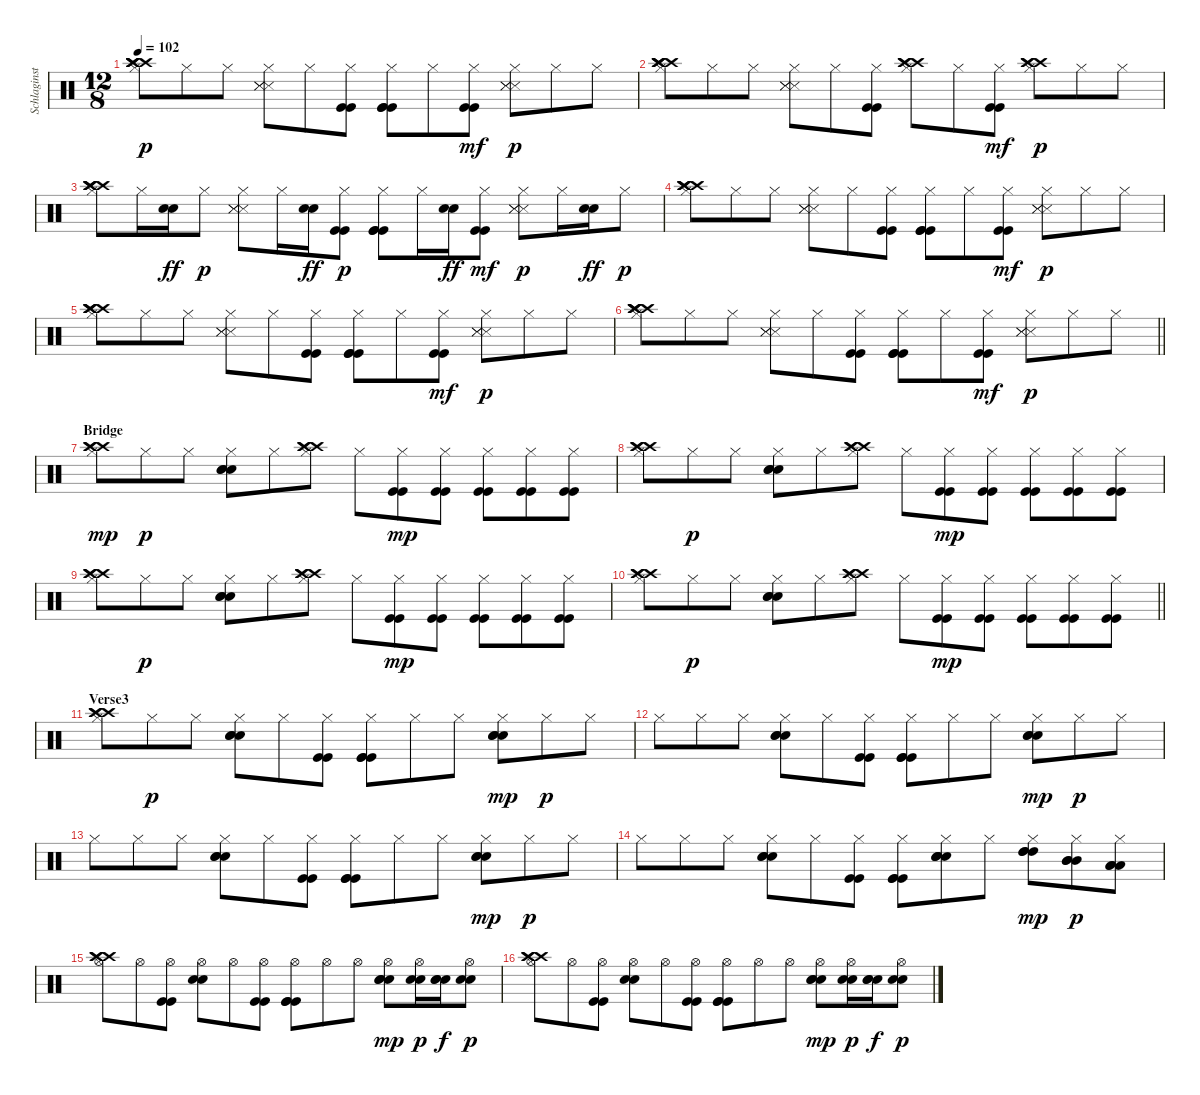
\track ("Schlaginstrumente - Auswahl" "Schlaginst") {instrument percussion}
\staff {score}
\articulation defaults
\ts (12 8)
\tempo 102
\clef neutral
\ks c
("Hi-Hat (closed)" "Crash high (hit)" "Crash high (hit)" "Crash high (hit)" "Crash high (hit)").8{dy p} "Hi-Hat (closed)".8 "Hi-Hat (closed)".8 ("Hi-Hat (closed)" "Snare (side stick) 3" "Snare (side stick) 3" "Snare (side stick) 3").8 "Hi-Hat (closed)".8 ("Hi-Hat (closed)" "Kick (hit)" "Kick (hit)").8 ("Hi-Hat (closed)" "Kick (hit)" "Kick (hit)" "Kick (hit)").8 "Hi-Hat (closed)".8 ("Hi-Hat (closed)" "Kick (hit)" "Kick (hit)").8{dy mf} ("Hi-Hat (closed)" "Snare (side stick) 3" "Snare (side stick) 3" "Snare (side stick) 3").8{dy p} "Hi-Hat (closed)".8 "Hi-Hat (closed)".8 |
("Hi-Hat (closed)" "Crash high (hit)" "Crash high (hit)" "Crash high (hit)" "Crash high (hit)").8 "Hi-Hat (closed)".8 "Hi-Hat (closed)".8 ("Hi-Hat (closed)" "Snare (side stick) 3" "Snare (side stick) 3" "Snare (side stick) 3").8 "Hi-Hat (closed)".8 ("Hi-Hat (closed)" "Kick (hit)" "Kick (hit)").8 ("Hi-Hat (closed)" "Crash high (hit)" "Crash high (hit)" "Crash high (hit)").8 "Hi-Hat (closed)".8 ("Hi-Hat (closed)" "Kick (hit)" "Kick (hit)").8{dy mf} ("Hi-Hat (closed)" "Crash high (hit)" "Crash high (hit)" "Crash high (hit)").8{dy p} "Hi-Hat (closed)".8 "Hi-Hat (closed)".8 |
("Hi-Hat (closed)" "Crash high (hit)" "Crash high (hit)" "Crash high (hit)" "Crash high (hit)").8 "Hi-Hat (closed)".16 ("Snare (hit) 2" "Snare (hit) 2").16{dy ff} "Hi-Hat (closed)".8{dy p} ("Hi-Hat (closed)" "Snare (side stick) 3" "Snare (side stick) 3" "Snare (side stick) 3").8 "Hi-Hat (closed)".16 ("Snare (hit) 2" "Snare (hit) 2").16{dy ff} ("Hi-Hat (closed)" "Kick (hit)" "Kick (hit)").8{dy p} ("Hi-Hat (closed)" "Kick (hit)" "Kick (hit)" "Kick (hit)").8 "Hi-Hat (closed)".16 ("Snare (hit) 2" "Snare (hit) 2").16{dy ff} ("Hi-Hat (closed)" "Kick (hit)" "Kick (hit)").8{dy mf} ("Hi-Hat (closed)" "Snare (side stick) 3" "Snare (side stick) 3" "Snare (side stick) 3").8{dy p} "Hi-Hat (closed)".16 ("Snare (hit) 2" "Snare (hit) 2").16{dy ff} "Hi-Hat (closed)".8{dy p} |
("Hi-Hat (closed)" "Crash high (hit)" "Crash high (hit)" "Crash high (hit)" "Crash high (hit)").8 "Hi-Hat (closed)".8 "Hi-Hat (closed)".8 ("Hi-Hat (closed)" "Snare (side stick) 3" "Snare (side stick) 3" "Snare (side stick) 3").8 "Hi-Hat (closed)".8 ("Hi-Hat (closed)" "Kick (hit)" "Kick (hit)").8 ("Hi-Hat (closed)" "Kick (hit)" "Kick (hit)" "Kick (hit)").8 "Hi-Hat (closed)".8 ("Hi-Hat (closed)" "Kick (hit)" "Kick (hit)").8{dy mf} ("Hi-Hat (closed)" "Snare (side stick) 3" "Snare (side stick) 3" "Snare (side stick) 3").8{dy p} "Hi-Hat (closed)".8 "Hi-Hat (closed)".8 |
("Hi-Hat (closed)" "Crash high (hit)" "Crash high (hit)" "Crash high (hit)" "Crash high (hit)").8 "Hi-Hat (closed)".8 "Hi-Hat (closed)".8 ("Hi-Hat (closed)" "Snare (side stick) 3" "Snare (side stick) 3" "Snare (side stick) 3").8 "Hi-Hat (closed)".8 ("Hi-Hat (closed)" "Kick (hit)" "Kick (hit)").8 ("Hi-Hat (closed)" "Kick (hit)" "Kick (hit)" "Kick (hit)").8 "Hi-Hat (closed)".8 ("Hi-Hat (closed)" "Kick (hit)" "Kick (hit)").8{dy mf} ("Hi-Hat (closed)" "Snare (side stick) 3" "Snare (side stick) 3" "Snare (side stick) 3").8{dy p} "Hi-Hat (closed)".8 "Hi-Hat (closed)".8 |
\barLineRight lightlight
("Hi-Hat (closed)" "Crash high (hit)" "Crash high (hit)" "Crash high (hit)" "Crash high (hit)").8 "Hi-Hat (closed)".8 "Hi-Hat (closed)".8 ("Hi-Hat (closed)" "Snare (side stick) 3" "Snare (side stick) 3" "Snare (side stick) 3").8 "Hi-Hat (closed)".8 ("Hi-Hat (closed)" "Kick (hit)" "Kick (hit)").8 ("Hi-Hat (closed)" "Kick (hit)" "Kick (hit)" "Kick (hit)").8 "Hi-Hat (closed)".8 ("Hi-Hat (closed)" "Kick (hit)" "Kick (hit)").8{dy mf} ("Hi-Hat (closed)" "Snare (side stick) 3" "Snare (side stick) 3" "Snare (side stick) 3").8{dy p} "Hi-Hat (closed)".8 "Hi-Hat (closed)".8 |
\section ("" "Bridge")
("Hi-Hat (closed)" "Crash high (hit)" "Crash high (hit)" "Crash high (hit)").8{dy mp} "Hi-Hat (closed)".8{dy p} "Hi-Hat (closed)".8 ("Hi-Hat (closed)" "Snare (hit) 2" "Snare (hit) 2" "Metronome (bell)").8 "Hi-Hat (closed)".8 ("Hi-Hat (closed)" "Crash high (hit)" "Crash high (hit)" "Crash high (hit)").8 "Hi-Hat (closed)".8 ("Hi-Hat (closed)" "Kick (hit)" "Kick (hit)").8{dy mp} ("Hi-Hat (closed)" "Kick (hit)" "Kick (hit)").8 ("Hi-Hat (closed)" "Kick (hit)" "Kick (hit)").8 ("Hi-Hat (closed)" "Kick (hit)" "Kick (hit)").8 ("Hi-Hat (closed)" "Kick (hit)" "Kick (hit)").8 |
("Hi-Hat (closed)" "Crash high (hit)" "Crash high (hit)" "Crash high (hit)").8 "Hi-Hat (closed)".8{dy p} "Hi-Hat (closed)".8 ("Hi-Hat (closed)" "Snare (hit) 2" "Snare (hit) 2" "Metronome (bell)").8 "Hi-Hat (closed)".8 ("Hi-Hat (closed)" "Crash high (hit)" "Crash high (hit)" "Crash high (hit)").8 "Hi-Hat (closed)".8 ("Hi-Hat (closed)" "Kick (hit)" "Kick (hit)").8{dy mp} ("Hi-Hat (closed)" "Kick (hit)" "Kick (hit)").8 ("Hi-Hat (closed)" "Kick (hit)" "Kick (hit)").8 ("Hi-Hat (closed)" "Kick (hit)" "Kick (hit)").8 ("Hi-Hat (closed)" "Kick (hit)" "Kick (hit)").8 |
("Hi-Hat (closed)" "Crash high (hit)" "Crash high (hit)" "Crash high (hit)").8 "Hi-Hat (closed)".8{dy p} "Hi-Hat (closed)".8 ("Hi-Hat (closed)" "Snare (hit) 2" "Snare (hit) 2" "Metronome (bell)").8 "Hi-Hat (closed)".8 ("Hi-Hat (closed)" "Crash high (hit)" "Crash high (hit)" "Crash high (hit)").8 "Hi-Hat (closed)".8 ("Hi-Hat (closed)" "Kick (hit)" "Kick (hit)").8{dy mp} ("Hi-Hat (closed)" "Kick (hit)" "Kick (hit)").8 ("Hi-Hat (closed)" "Kick (hit)" "Kick (hit)").8 ("Hi-Hat (closed)" "Kick (hit)" "Kick (hit)").8 ("Hi-Hat (closed)" "Kick (hit)" "Kick (hit)").8 |
\barLineRight lightlight
("Hi-Hat (closed)" "Crash high (hit)" "Crash high (hit)" "Crash high (hit)").8 "Hi-Hat (closed)".8{dy p} "Hi-Hat (closed)".8 ("Hi-Hat (closed)" "Snare (hit) 2" "Snare (hit) 2" "Metronome (bell)").8 "Hi-Hat (closed)".8 ("Hi-Hat (closed)" "Crash high (hit)" "Crash high (hit)" "Crash high (hit)").8 "Hi-Hat (closed)".8 ("Hi-Hat (closed)" "Kick (hit)" "Kick (hit)").8{dy mp} ("Hi-Hat (closed)" "Kick (hit)" "Kick (hit)").8 ("Hi-Hat (closed)" "Kick (hit)" "Kick (hit)").8 ("Hi-Hat (closed)" "Kick (hit)" "Kick (hit)").8 ("Hi-Hat (closed)" "Kick (hit)" "Kick (hit)").8 |
\section ("" "Verse3")
("Hi-Hat (closed)" "Crash high (hit)" "Crash high (hit)" "Crash high (hit)").8 "Hi-Hat (closed)".8{dy p} "Hi-Hat (closed)".8 ("Hi-Hat (closed)" "Snare (hit) 2" "Snare (hit) 2" "Metronome (bell)").8 "Hi-Hat (closed)".8 ("Hi-Hat (closed)" "Kick (hit)" "Kick (hit)").8 ("Hi-Hat (closed)" "Kick (hit)" "Kick (hit)" "Kick (hit)").8 "Hi-Hat (closed)".8 "Hi-Hat (closed)".8 ("Hi-Hat (closed)" "Snare (hit) 2" "Snare (hit) 2" "Snare (hit) 2").8{dy mp} "Hi-Hat (closed)".8{dy p} "Hi-Hat (closed)".8 |
"Hi-Hat (closed)".8 "Hi-Hat (closed)".8 "Hi-Hat (closed)".8 ("Hi-Hat (closed)" "Snare (hit) 2" "Snare (hit) 2" "Metronome (bell)").8 "Hi-Hat (closed)".8 ("Hi-Hat (closed)" "Kick (hit)" "Kick (hit)").8 ("Hi-Hat (closed)" "Kick (hit)" "Kick (hit)" "Kick (hit)").8 "Hi-Hat (closed)".8 "Hi-Hat (closed)".8 ("Hi-Hat (closed)" "Snare (hit) 2" "Snare (hit) 2" "Snare (hit) 2").8{dy mp} "Hi-Hat (closed)".8{dy p} "Hi-Hat (closed)".8 |
"Hi-Hat (closed)".8 "Hi-Hat (closed)".8 "Hi-Hat (closed)".8 ("Hi-Hat (closed)" "Snare (hit) 2" "Snare (hit) 2" "Metronome (bell)").8 "Hi-Hat (closed)".8 ("Hi-Hat (closed)" "Kick (hit)" "Kick (hit)").8 ("Hi-Hat (closed)" "Kick (hit)" "Kick (hit)" "Kick (hit)").8 "Hi-Hat (closed)".8 "Hi-Hat (closed)".8 ("Hi-Hat (closed)" "Snare (hit) 2" "Snare (hit) 2" "Snare (hit) 2").8{dy mp} "Hi-Hat (closed)".8{dy p} "Hi-Hat (closed)".8 |
"Hi-Hat (closed)".8 "Hi-Hat (closed)".8 "Hi-Hat (closed)".8 ("Hi-Hat (closed)" "Snare (hit) 2" "Snare (hit) 2" "Metronome (bell)").8 "Hi-Hat (closed)".8 ("Hi-Hat (closed)" "Kick (hit)" "Kick (hit)").8 ("Hi-Hat (closed)" "Kick (hit)" "Kick (hit)" "Kick (hit)").8 ("Hi-Hat (closed)" "Snare (hit) 2" "Snare (hit) 2" "Snare (hit) 2" "Snare (hit) 2").8 "Hi-Hat (closed)".8 ("Hi-Hat (closed)" "High Tom (hit)" "High Tom (hit)" "High Tom (hit)").8{dy mp} ("Hi-Hat (closed)" "Mid Tom (hit)" "Mid Tom (hit)" "Mid Tom (hit)").8{dy p} ("Hi-Hat (closed)" "Low Floor Tom (hit)" "Low Floor Tom (hit)" "Low Floor Tom (hit)").8 |
("Hi-Hat (open)" "Crash high (hit)" "Crash high (hit)" "Crash high (hit)").8 "Hi-Hat (open)".8 ("Hi-Hat (open)" "Kick (hit)" "Kick (hit)").8 ("Hi-Hat (open)" "Snare (hit) 2" "Snare (hit) 2").8 "Hi-Hat (open)".8 ("Hi-Hat (open)" "Kick (hit)" "Kick (hit)").8 ("Hi-Hat (open)" "Kick (hit)" "Kick (hit)" "Kick (hit)").8 "Hi-Hat (open)".8 "Hi-Hat (open)".8 ("Hi-Hat (open)" "Snare (hit) 2" "Snare (hit) 2" "Snare (hit) 2").8{dy mp} ("Hi-Hat (open)" "Snare (hit) 2" "Snare (hit) 2").16{dy p} ("Snare (hit) 2" "Snare (hit) 2" "Snare (hit) 2").16{dy f} ("Hi-Hat (open)" "Snare (hit) 2" "Snare (hit) 2").8{dy p} |
("Hi-Hat (open)" "Crash high (hit)" "Crash high (hit)" "Crash high (hit)").8 "Hi-Hat (open)".8 ("Hi-Hat (open)" "Kick (hit)" "Kick (hit)").8 ("Hi-Hat (open)" "Snare (hit) 2" "Snare (hit) 2").8 "Hi-Hat (open)".8 ("Hi-Hat (open)" "Kick (hit)" "Kick (hit)").8 ("Hi-Hat (open)" "Kick (hit)" "Kick (hit)" "Kick (hit)").8 "Hi-Hat (open)".8 "Hi-Hat (open)".8 ("Hi-Hat (open)" "Snare (hit) 2" "Snare (hit) 2" "Snare (hit) 2").8{dy mp} ("Hi-Hat (open)" "Snare (hit) 2" "Snare (hit) 2").16{dy p} ("Snare (hit) 2" "Snare (hit) 2" "Snare (hit) 2").16{dy f} ("Hi-Hat (open)" "Snare (hit) 2" "Snare (hit) 2").8{dy p}
